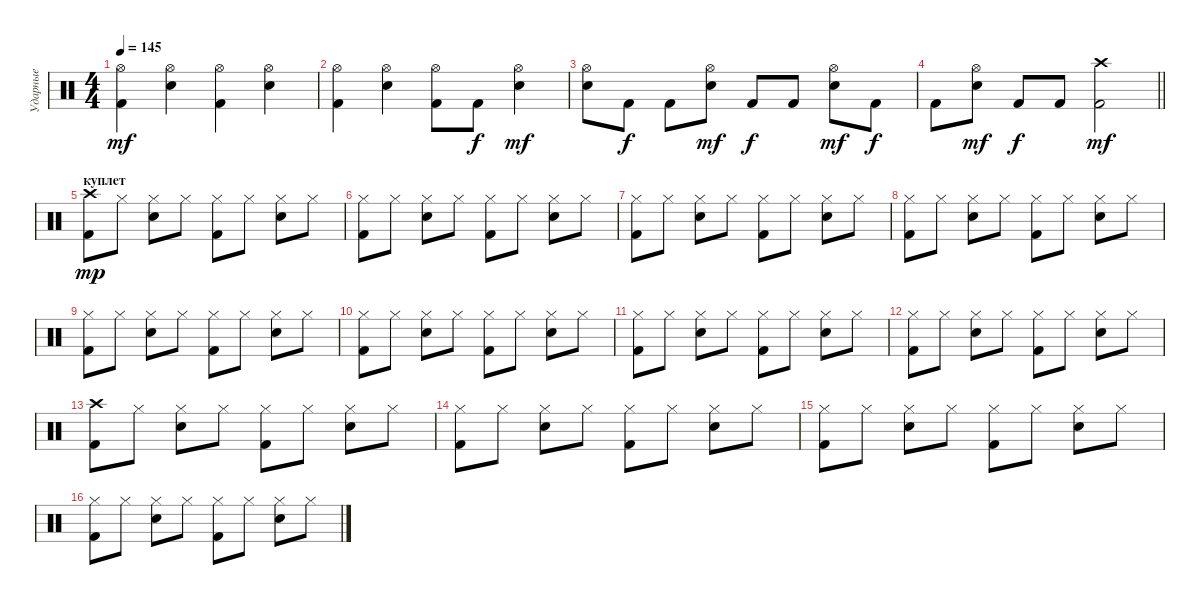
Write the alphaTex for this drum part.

\track ("Ударные" "Ударные") {instrument percussion}
\staff {score}
\articulation defaults
\ts (4 4)
\tempo 145
\clef neutral
\ks c
("Kick (hit) 2" "Hi-Hat (open)").4{dy mf} ("Snare (hit) 2" "Hi-Hat (open)").4 ("Kick (hit) 2" "Hi-Hat (open)").4 ("Snare (hit) 2" "Hi-Hat (open)").4 |
("Kick (hit) 2" "Hi-Hat (open)").4 ("Snare (hit) 2" "Hi-Hat (open)").4 ("Kick (hit) 2" "Hi-Hat (open)").8 "Kick (hit) 2".8{dy f} ("Snare (hit) 2" "Hi-Hat (open)").4{dy mf} |
("Snare (hit) 2" "Hi-Hat (open)").8 "Kick (hit) 2".8{dy f} "Kick (hit) 2".8 ("Snare (hit) 2" "Hi-Hat (open)").8{dy mf} "Kick (hit) 2".8{dy f} "Kick (hit) 2".8 ("Snare (hit) 2" "Hi-Hat (open)").8{dy mf} "Kick (hit) 2".8{dy f} |
\barLineRight lightlight "Kick (hit) 2".8
("Snare (hit) 2" "Hi-Hat (open)").8{dy mf} "Kick (hit) 2".8{dy f} "Kick (hit) 2".8 ("Kick (hit) 2" "Crash high (hit)").2{dy mf} |
\section ("" "куплет")
("Kick (hit) 2" "Crash high (hit)").8{dy mp} "Hi-Hat (closed)".8 ("Snare (hit) 2" "Hi-Hat (closed)").8 "Hi-Hat (closed)".8 ("Kick (hit) 2" "Hi-Hat (closed)").8 "Hi-Hat (closed)".8 ("Snare (hit) 2" "Hi-Hat (closed)").8 "Hi-Hat (closed)".8 |
("Kick (hit) 2" "Hi-Hat (closed)").8 "Hi-Hat (closed)".8 ("Snare (hit) 2" "Hi-Hat (closed)").8 "Hi-Hat (closed)".8 ("Kick (hit) 2" "Hi-Hat (closed)").8 "Hi-Hat (closed)".8 ("Snare (hit) 2" "Hi-Hat (closed)").8 "Hi-Hat (closed)".8 |
("Kick (hit) 2" "Hi-Hat (closed)").8 "Hi-Hat (closed)".8 ("Snare (hit) 2" "Hi-Hat (closed)").8 "Hi-Hat (closed)".8 ("Kick (hit) 2" "Hi-Hat (closed)").8 "Hi-Hat (closed)".8 ("Snare (hit) 2" "Hi-Hat (closed)").8 "Hi-Hat (closed)".8 |
("Kick (hit) 2" "Hi-Hat (closed)").8 "Hi-Hat (closed)".8 ("Snare (hit) 2" "Hi-Hat (closed)").8 "Hi-Hat (closed)".8 ("Kick (hit) 2" "Hi-Hat (closed)").8 "Hi-Hat (closed)".8 ("Snare (hit) 2" "Hi-Hat (closed)").8 "Hi-Hat (closed)".8 |
("Kick (hit) 2" "Hi-Hat (closed)").8 "Hi-Hat (closed)".8 ("Snare (hit) 2" "Hi-Hat (closed)").8 "Hi-Hat (closed)".8 ("Kick (hit) 2" "Hi-Hat (closed)").8 "Hi-Hat (closed)".8 ("Snare (hit) 2" "Hi-Hat (closed)").8 "Hi-Hat (closed)".8 |
("Kick (hit) 2" "Hi-Hat (closed)").8 "Hi-Hat (closed)".8 ("Snare (hit) 2" "Hi-Hat (closed)").8 "Hi-Hat (closed)".8 ("Kick (hit) 2" "Hi-Hat (closed)").8 "Hi-Hat (closed)".8 ("Snare (hit) 2" "Hi-Hat (closed)").8 "Hi-Hat (closed)".8 |
("Kick (hit) 2" "Hi-Hat (closed)").8 "Hi-Hat (closed)".8 ("Snare (hit) 2" "Hi-Hat (closed)").8 "Hi-Hat (closed)".8 ("Kick (hit) 2" "Hi-Hat (closed)").8 "Hi-Hat (closed)".8 ("Snare (hit) 2" "Hi-Hat (closed)").8 "Hi-Hat (closed)".8 |
("Kick (hit) 2" "Hi-Hat (closed)").8 "Hi-Hat (closed)".8 ("Snare (hit) 2" "Hi-Hat (closed)").8 "Hi-Hat (closed)".8 ("Kick (hit) 2" "Hi-Hat (closed)").8 "Hi-Hat (closed)".8 ("Snare (hit) 2" "Hi-Hat (closed)").8 "Hi-Hat (closed)".8 |
("Kick (hit) 2" "Crash high (hit)").8 "Hi-Hat (closed)".8 ("Snare (hit) 2" "Hi-Hat (closed)").8 "Hi-Hat (closed)".8 ("Kick (hit) 2" "Hi-Hat (closed)").8 "Hi-Hat (closed)".8 ("Snare (hit) 2" "Hi-Hat (closed)").8 "Hi-Hat (closed)".8 |
("Kick (hit) 2" "Hi-Hat (closed)").8 "Hi-Hat (closed)".8 ("Snare (hit) 2" "Hi-Hat (closed)").8 "Hi-Hat (closed)".8 ("Kick (hit) 2" "Hi-Hat (closed)").8 "Hi-Hat (closed)".8 ("Snare (hit) 2" "Hi-Hat (closed)").8 "Hi-Hat (closed)".8 |
("Kick (hit) 2" "Hi-Hat (closed)").8 "Hi-Hat (closed)".8 ("Snare (hit) 2" "Hi-Hat (closed)").8 "Hi-Hat (closed)".8 ("Kick (hit) 2" "Hi-Hat (closed)").8 "Hi-Hat (closed)".8 ("Snare (hit) 2" "Hi-Hat (closed)").8 "Hi-Hat (closed)".8 |
("Kick (hit) 2" "Hi-Hat (closed)").8 "Hi-Hat (closed)".8 ("Snare (hit) 2" "Hi-Hat (closed)").8 "Hi-Hat (closed)".8 ("Kick (hit) 2" "Hi-Hat (closed)").8 "Hi-Hat (closed)".8 ("Snare (hit) 2" "Hi-Hat (closed)").8 "Hi-Hat (closed)".8
